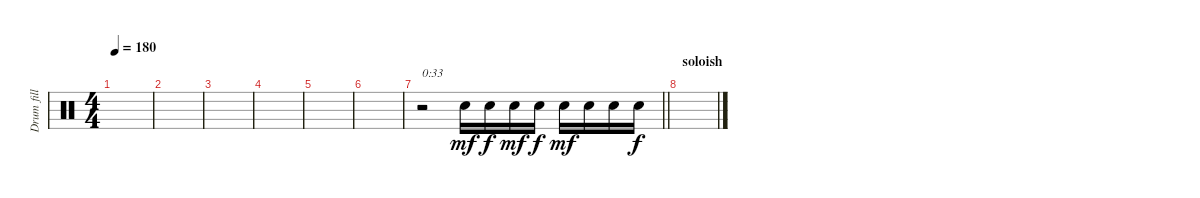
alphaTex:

\track ("Drum fill" "Drum fill") {instrument percussion}
\staff {score}
\articulation defaults
\ts (4 4)
\tempo 180
\clef neutral
\ks c
|
|
|
|
|
|
\barLineRight lightlight
r.2{txt "0:33"} "Snare (hit) 2".16{dy mf} "Snare (hit) 2".16{dy f} "Snare (hit) 2".16{dy mf} "Snare (hit) 2".16{dy f} "Snare (hit) 2".16{dy mf} "Snare (hit) 2".16 "Snare (hit) 2".16 "Snare (hit) 2".16{dy f} |
\section ("" "soloish")
